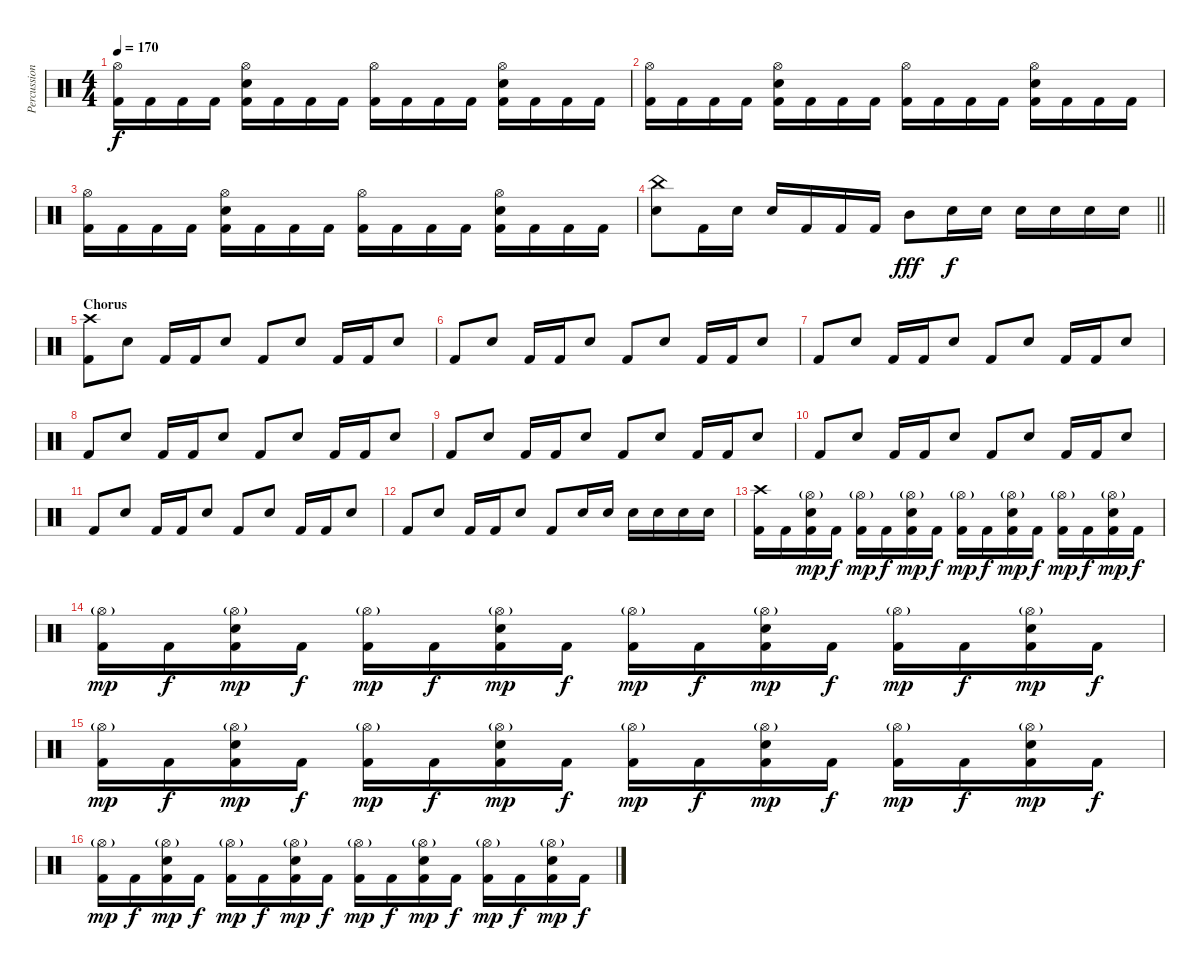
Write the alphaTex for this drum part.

\track ("Percussions" "Percussion") {instrument percussion}
\staff {score}
\articulation defaults
\ts (4 4)
\tempo 170
\clef neutral
\ks c
("Hi-Hat (open)" "Kick (hit) 2").16{dy f} "Kick (hit) 2".16 "Kick (hit) 2".16 "Kick (hit) 2".16 ("Hi-Hat (open)" "Electric Snare (hit)" "Kick (hit) 2").16 "Kick (hit) 2".16 "Kick (hit) 2".16 "Kick (hit) 2".16 ("Hi-Hat (open)" "Kick (hit) 2").16 "Kick (hit) 2".16 "Kick (hit) 2".16 "Kick (hit) 2".16 ("Hi-Hat (open)" "Electric Snare (hit)" "Kick (hit) 2").16 "Kick (hit) 2".16 "Kick (hit) 2".16 "Kick (hit) 2".16 |
("Hi-Hat (open)" "Kick (hit) 2").16 "Kick (hit) 2".16 "Kick (hit) 2".16 "Kick (hit) 2".16 ("Hi-Hat (open)" "Electric Snare (hit)" "Kick (hit) 2").16 "Kick (hit) 2".16 "Kick (hit) 2".16 "Kick (hit) 2".16 ("Hi-Hat (open)" "Kick (hit) 2").16 "Kick (hit) 2".16 "Kick (hit) 2".16 "Kick (hit) 2".16 ("Hi-Hat (open)" "Electric Snare (hit)" "Kick (hit) 2").16 "Kick (hit) 2".16 "Kick (hit) 2".16 "Kick (hit) 2".16 |
("Hi-Hat (open)" "Kick (hit) 2").16 "Kick (hit) 2".16 "Kick (hit) 2".16 "Kick (hit) 2".16 ("Hi-Hat (open)" "Electric Snare (hit)" "Kick (hit) 2").16 "Kick (hit) 2".16 "Kick (hit) 2".16 "Kick (hit) 2".16 ("Hi-Hat (open)" "Kick (hit) 2").16 "Kick (hit) 2".16 "Kick (hit) 2".16 "Kick (hit) 2".16 ("Hi-Hat (open)" "Electric Snare (hit)" "Kick (hit) 2").16 "Kick (hit) 2".16 "Kick (hit) 2".16 "Kick (hit) 2".16 |
\barLineRight lightlight
("China (hit)" "Electric Snare (hit)").8 "Kick (hit) 2".16 "Electric Snare (hit)".16 "Electric Snare (hit)".16 "Kick (hit) 2".16 "Kick (hit) 2".16 "Kick (hit) 2".16 "Mid Tom (hit)".8{dy fff} "Electric Snare (hit)".16{dy f} "Electric Snare (hit)".16 "Electric Snare (hit)".16 "Electric Snare (hit)".16 "Electric Snare (hit)".16 "Electric Snare (hit)".16 |
\section ("" "Chorus")
("Crash high (hit)" "Kick (hit) 2").8 "Electric Snare (hit)".8 "Kick (hit) 2".16 "Kick (hit) 2".16 "Electric Snare (hit)".8 "Kick (hit) 2".8 "Electric Snare (hit)".8 "Kick (hit) 2".16 "Kick (hit) 2".16 "Electric Snare (hit)".8 |
"Kick (hit) 2".8 "Electric Snare (hit)".8 "Kick (hit) 2".16 "Kick (hit) 2".16 "Electric Snare (hit)".8 "Kick (hit) 2".8 "Electric Snare (hit)".8 "Kick (hit) 2".16 "Kick (hit) 2".16 "Electric Snare (hit)".8 |
"Kick (hit) 2".8 "Electric Snare (hit)".8 "Kick (hit) 2".16 "Kick (hit) 2".16 "Electric Snare (hit)".8 "Kick (hit) 2".8 "Electric Snare (hit)".8 "Kick (hit) 2".16 "Kick (hit) 2".16 "Electric Snare (hit)".8 |
"Kick (hit) 2".8 "Electric Snare (hit)".8 "Kick (hit) 2".16 "Kick (hit) 2".16 "Electric Snare (hit)".8 "Kick (hit) 2".8 "Electric Snare (hit)".8 "Kick (hit) 2".16 "Kick (hit) 2".16 "Electric Snare (hit)".8 |
"Kick (hit) 2".8 "Electric Snare (hit)".8 "Kick (hit) 2".16 "Kick (hit) 2".16 "Electric Snare (hit)".8 "Kick (hit) 2".8 "Electric Snare (hit)".8 "Kick (hit) 2".16 "Kick (hit) 2".16 "Electric Snare (hit)".8 |
"Kick (hit) 2".8 "Electric Snare (hit)".8 "Kick (hit) 2".16 "Kick (hit) 2".16 "Electric Snare (hit)".8 "Kick (hit) 2".8 "Electric Snare (hit)".8 "Kick (hit) 2".16 "Kick (hit) 2".16 "Electric Snare (hit)".8 |
"Kick (hit) 2".8 "Electric Snare (hit)".8 "Kick (hit) 2".16 "Kick (hit) 2".16 "Electric Snare (hit)".8 "Kick (hit) 2".8 "Electric Snare (hit)".8 "Kick (hit) 2".16 "Kick (hit) 2".16 "Electric Snare (hit)".8 |
"Kick (hit) 2".8 "Electric Snare (hit)".8 "Kick (hit) 2".16 "Kick (hit) 2".16 "Electric Snare (hit)".8 "Kick (hit) 2".8 "Electric Snare (hit)".16 "Electric Snare (hit)".16 "Electric Snare (hit)".16 "Electric Snare (hit)".16 "Electric Snare (hit)".16 "Electric Snare (hit)".16 |
("Crash high (hit)" "Kick (hit) 2").16 "Kick (hit) 2".16 ("Hi-Hat (open)"{g} "Electric Snare (hit)" "Kick (hit) 2").16{dy mp} "Kick (hit) 2".16{dy f} ("Hi-Hat (open)"{g} "Kick (hit) 2").16{dy mp} "Kick (hit) 2".16{dy f} ("Hi-Hat (open)"{g} "Electric Snare (hit)" "Kick (hit) 2").16{dy mp} "Kick (hit) 2".16{dy f} ("Hi-Hat (open)"{g} "Kick (hit) 2").16{dy mp} "Kick (hit) 2".16{dy f} ("Hi-Hat (open)"{g} "Electric Snare (hit)" "Kick (hit) 2").16{dy mp} "Kick (hit) 2".16{dy f} ("Hi-Hat (open)"{g} "Kick (hit) 2").16{dy mp} "Kick (hit) 2".16{dy f} ("Hi-Hat (open)"{g} "Electric Snare (hit)" "Kick (hit) 2").16{dy mp} "Kick (hit) 2".16{dy f} |
("Hi-Hat (open)"{g} "Kick (hit) 2").16{dy mp} "Kick (hit) 2".16{dy f} ("Hi-Hat (open)"{g} "Electric Snare (hit)" "Kick (hit) 2").16{dy mp} "Kick (hit) 2".16{dy f} ("Hi-Hat (open)"{g} "Kick (hit) 2").16{dy mp} "Kick (hit) 2".16{dy f} ("Hi-Hat (open)"{g} "Electric Snare (hit)" "Kick (hit) 2").16{dy mp} "Kick (hit) 2".16{dy f} ("Hi-Hat (open)"{g} "Kick (hit) 2").16{dy mp} "Kick (hit) 2".16{dy f} ("Hi-Hat (open)"{g} "Electric Snare (hit)" "Kick (hit) 2").16{dy mp} "Kick (hit) 2".16{dy f} ("Hi-Hat (open)"{g} "Kick (hit) 2").16{dy mp} "Kick (hit) 2".16{dy f} ("Hi-Hat (open)"{g} "Electric Snare (hit)" "Kick (hit) 2").16{dy mp} "Kick (hit) 2".16{dy f} |
("Hi-Hat (open)"{g} "Kick (hit) 2").16{dy mp} "Kick (hit) 2".16{dy f} ("Hi-Hat (open)"{g} "Electric Snare (hit)" "Kick (hit) 2").16{dy mp} "Kick (hit) 2".16{dy f} ("Hi-Hat (open)"{g} "Kick (hit) 2").16{dy mp} "Kick (hit) 2".16{dy f} ("Hi-Hat (open)"{g} "Electric Snare (hit)" "Kick (hit) 2").16{dy mp} "Kick (hit) 2".16{dy f} ("Hi-Hat (open)"{g} "Kick (hit) 2").16{dy mp} "Kick (hit) 2".16{dy f} ("Hi-Hat (open)"{g} "Electric Snare (hit)" "Kick (hit) 2").16{dy mp} "Kick (hit) 2".16{dy f} ("Hi-Hat (open)"{g} "Kick (hit) 2").16{dy mp} "Kick (hit) 2".16{dy f} ("Hi-Hat (open)"{g} "Electric Snare (hit)" "Kick (hit) 2").16{dy mp} "Kick (hit) 2".16{dy f} |
("Hi-Hat (open)"{g} "Kick (hit) 2").16{dy mp} "Kick (hit) 2".16{dy f} ("Hi-Hat (open)"{g} "Electric Snare (hit)" "Kick (hit) 2").16{dy mp} "Kick (hit) 2".16{dy f} ("Hi-Hat (open)"{g} "Kick (hit) 2").16{dy mp} "Kick (hit) 2".16{dy f} ("Hi-Hat (open)"{g} "Electric Snare (hit)" "Kick (hit) 2").16{dy mp} "Kick (hit) 2".16{dy f} ("Hi-Hat (open)"{g} "Kick (hit) 2").16{dy mp} "Kick (hit) 2".16{dy f} ("Hi-Hat (open)"{g} "Electric Snare (hit)" "Kick (hit) 2").16{dy mp} "Kick (hit) 2".16{dy f} ("Hi-Hat (open)"{g} "Kick (hit) 2").16{dy mp} "Kick (hit) 2".16{dy f} ("Hi-Hat (open)"{g} "Electric Snare (hit)" "Kick (hit) 2").16{dy mp} "Kick (hit) 2".16{dy f}
